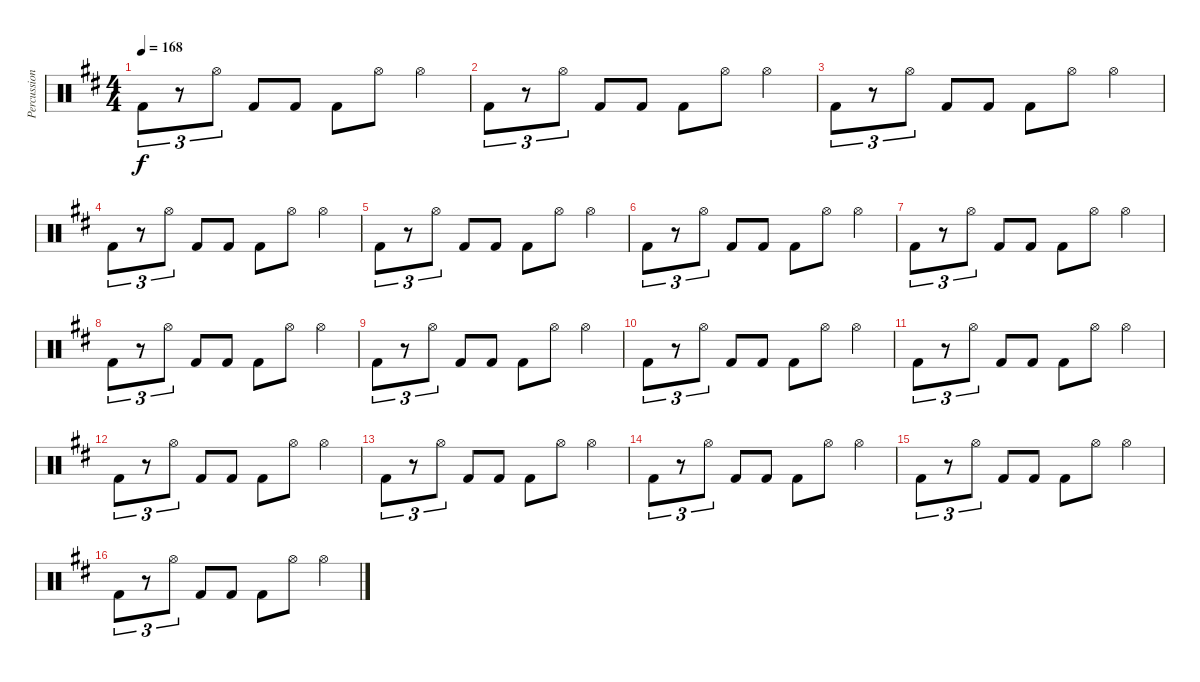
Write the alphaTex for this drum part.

\track ("Percussion" "Percussion") {instrument percussion}
\staff {score}
\articulation defaults
\ts (4 4)
\tempo 168
\clef neutral
\ks d "Kick (hit) 2".8{tu (3 2) dy f}
r.8{tu (3 2)} "Hi-Hat (open)".8{tu (3 2)} "Kick (hit) 2".8 "Kick (hit) 2".8 "Kick (hit) 2".8 "Hi-Hat (open)".8 "Hi-Hat (open)".4 |
"Kick (hit) 2".8{tu (3 2)} r.8{tu (3 2)} "Hi-Hat (open)".8{tu (3 2)} "Kick (hit) 2".8 "Kick (hit) 2".8 "Kick (hit) 2".8 "Hi-Hat (open)".8 "Hi-Hat (open)".4 |
"Kick (hit) 2".8{tu (3 2)} r.8{tu (3 2)} "Hi-Hat (open)".8{tu (3 2)} "Kick (hit) 2".8 "Kick (hit) 2".8 "Kick (hit) 2".8 "Hi-Hat (open)".8 "Hi-Hat (open)".4 |
"Kick (hit) 2".8{tu (3 2)} r.8{tu (3 2)} "Hi-Hat (open)".8{tu (3 2)} "Kick (hit) 2".8 "Kick (hit) 2".8 "Kick (hit) 2".8 "Hi-Hat (open)".8 "Hi-Hat (open)".4 |
"Kick (hit) 2".8{tu (3 2)} r.8{tu (3 2)} "Hi-Hat (open)".8{tu (3 2)} "Kick (hit) 2".8 "Kick (hit) 2".8 "Kick (hit) 2".8 "Hi-Hat (open)".8 "Hi-Hat (open)".4 |
"Kick (hit) 2".8{tu (3 2)} r.8{tu (3 2)} "Hi-Hat (open)".8{tu (3 2)} "Kick (hit) 2".8 "Kick (hit) 2".8 "Kick (hit) 2".8 "Hi-Hat (open)".8 "Hi-Hat (open)".4 |
"Kick (hit) 2".8{tu (3 2)} r.8{tu (3 2)} "Hi-Hat (open)".8{tu (3 2)} "Kick (hit) 2".8 "Kick (hit) 2".8 "Kick (hit) 2".8 "Hi-Hat (open)".8 "Hi-Hat (open)".4 |
"Kick (hit) 2".8{tu (3 2)} r.8{tu (3 2)} "Hi-Hat (open)".8{tu (3 2)} "Kick (hit) 2".8 "Kick (hit) 2".8 "Kick (hit) 2".8 "Hi-Hat (open)".8 "Hi-Hat (open)".4 |
"Kick (hit) 2".8{tu (3 2)} r.8{tu (3 2)} "Hi-Hat (open)".8{tu (3 2)} "Kick (hit) 2".8 "Kick (hit) 2".8 "Kick (hit) 2".8 "Hi-Hat (open)".8 "Hi-Hat (open)".4 |
"Kick (hit) 2".8{tu (3 2)} r.8{tu (3 2)} "Hi-Hat (open)".8{tu (3 2)} "Kick (hit) 2".8 "Kick (hit) 2".8 "Kick (hit) 2".8 "Hi-Hat (open)".8 "Hi-Hat (open)".4 |
"Kick (hit) 2".8{tu (3 2)} r.8{tu (3 2)} "Hi-Hat (open)".8{tu (3 2)} "Kick (hit) 2".8 "Kick (hit) 2".8 "Kick (hit) 2".8 "Hi-Hat (open)".8 "Hi-Hat (open)".4 |
"Kick (hit) 2".8{tu (3 2)} r.8{tu (3 2)} "Hi-Hat (open)".8{tu (3 2)} "Kick (hit) 2".8 "Kick (hit) 2".8 "Kick (hit) 2".8 "Hi-Hat (open)".8 "Hi-Hat (open)".4 |
"Kick (hit) 2".8{tu (3 2)} r.8{tu (3 2)} "Hi-Hat (open)".8{tu (3 2)} "Kick (hit) 2".8 "Kick (hit) 2".8 "Kick (hit) 2".8 "Hi-Hat (open)".8 "Hi-Hat (open)".4 |
"Kick (hit) 2".8{tu (3 2)} r.8{tu (3 2)} "Hi-Hat (open)".8{tu (3 2)} "Kick (hit) 2".8 "Kick (hit) 2".8 "Kick (hit) 2".8 "Hi-Hat (open)".8 "Hi-Hat (open)".4 |
"Kick (hit) 2".8{tu (3 2)} r.8{tu (3 2)} "Hi-Hat (open)".8{tu (3 2)} "Kick (hit) 2".8 "Kick (hit) 2".8 "Kick (hit) 2".8 "Hi-Hat (open)".8 "Hi-Hat (open)".4 |
"Kick (hit) 2".8{tu (3 2)} r.8{tu (3 2)} "Hi-Hat (open)".8{tu (3 2)} "Kick (hit) 2".8 "Kick (hit) 2".8 "Kick (hit) 2".8 "Hi-Hat (open)".8 "Hi-Hat (open)".4
